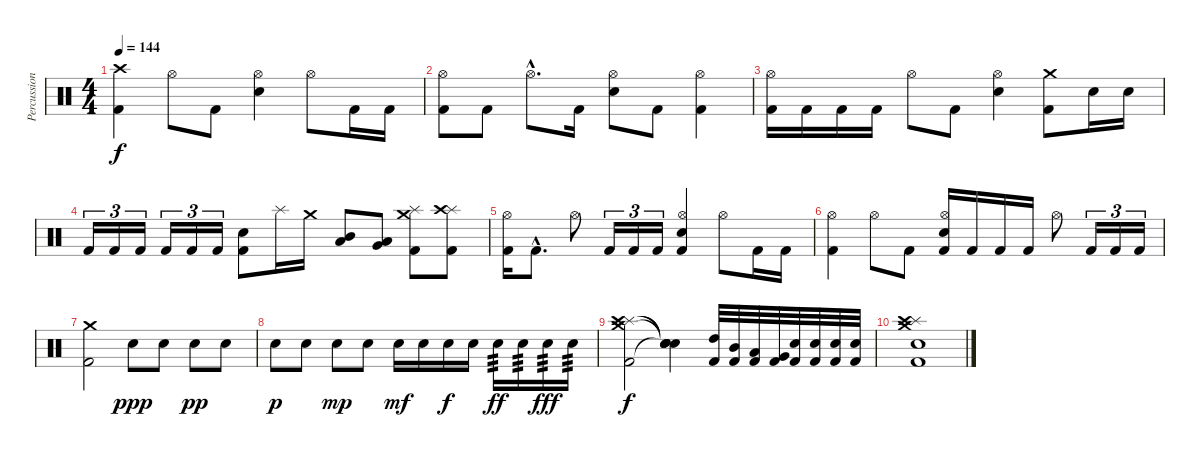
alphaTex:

\track ("Percussion" "Percussion") {instrument percussion}
\staff {score}
\articulation defaults
\ts (4 4)
\tempo 144
\clef neutral
\ks c
("Crash high (hit)" "Kick (hit) 2").4{dy f} "Hi-Hat (open)".8 "Kick (hit) 2".8 ("Hi-Hat (open)" "Electric Snare (hit)").4 "Hi-Hat (open)".8 "Kick (hit) 2".16 "Kick (hit) 2".16 |
("Hi-Hat (open)" "Kick (hit) 2").8 "Kick (hit) 2".8 "Hi-Hat (open)"{hac}.8{d} "Kick (hit) 2".16 ("Hi-Hat (open)" "Electric Snare (hit)").8 "Kick (hit) 2".8 ("Hi-Hat (open)" "Kick (hit) 2").4 |
("Hi-Hat (open)" "Kick (hit) 2").16 "Kick (hit) 2".16 "Kick (hit) 2".16 "Kick (hit) 2".16 "Hi-Hat (open)".8 "Kick (hit) 2".8 ("Hi-Hat (open)" "Electric Snare (hit)").4 ("Crash medium (hit)" "Kick (hit) 2").8 "Electric Snare (hit)".16 "Electric Snare (hit)".16 |
"Kick (hit) 2".16{tu (3 2)} "Kick (hit) 2".16{tu (3 2)} "Kick (hit) 2".16{tu (3 2)} "Kick (hit) 2".16{tu (3 2)} "Kick (hit) 2".16{tu (3 2)} "Kick (hit) 2".16{tu (3 2)} ("Electric Snare (hit)" "Kick (hit) 2").8 "Splash (hit)".16 "Crash medium (hit)".16 ("Mid Tom (hit)" "Low Tom (hit)").8 ("Low Tom (hit)" "Very Low Tom (hit)").8 ("Splash (hit)" "Crash medium (hit)" "Kick (hit) 2").8 ("Splash (hit)" "Crash high (hit)" "Kick (hit) 2").8 |
("Hi-Hat (open)" "Kick (hit) 2").16 "Kick (hit) 2"{hac}.8{d} "Hi-Hat (open)".8 "Kick (hit) 2".16{tu (3 2)} "Kick (hit) 2".16{tu (3 2)} "Kick (hit) 2".16{tu (3 2)} ("Hi-Hat (open)" "Electric Snare (hit)" "Kick (hit) 2").4 "Hi-Hat (open)".8 "Kick (hit) 2".16 "Kick (hit) 2".16 |
("Hi-Hat (open)" "Kick (hit) 2").4 "Hi-Hat (open)".8 "Kick (hit) 2".8 ("Hi-Hat (open)" "Electric Snare (hit)" "Kick (hit) 2").16 "Kick (hit) 2".16 "Kick (hit) 2".16 "Kick (hit) 2".16 "Hi-Hat (open)".8 "Kick (hit) 2".16{tu (3 2)} "Kick (hit) 2".16{tu (3 2)} "Kick (hit) 2".16{tu (3 2)} |
("Crash medium (hit)" "Kick (hit) 2").2 "Electric Snare (hit)".8{dy ppp} "Electric Snare (hit)".8 "Electric Snare (hit)".8{dy pp} "Electric Snare (hit)".8 |
"Electric Snare (hit)".8{dy p} "Electric Snare (hit)".8 "Electric Snare (hit)".8{dy mp} "Electric Snare (hit)".8 "Electric Snare (hit)".16{dy mf} "Electric Snare (hit)".16 "Electric Snare (hit)".16{dy f} "Electric Snare (hit)".16 "Electric Snare (hit)".16{tp 3 dy ff} "Electric Snare (hit)".16{tp 3} "Electric Snare (hit)".16{tp 3 dy fff} "Electric Snare (hit)".16{tp 3} |
("Crash medium (hit)" "Splash (hit)" "Crash high (hit)" "Kick (hit) 2").2{dy f} ("Snare (hit)"{t} "Snare (hit)"{t} "Snare (hit)"{t} "Snare (hit)"{t}).4 ("High Tom (hit)" "Kick (hit) 2").32 ("Mid Tom (hit)" "Kick (hit) 2").32 ("Low Tom (hit)" "Kick (hit) 2").32 ("Very Low Tom (hit)" "Kick (hit) 2").32 ("Electric Snare (hit)" "Kick (hit) 2").32 ("Electric Snare (hit)" "Kick (hit) 2").32 ("Electric Snare (hit)" "Kick (hit) 2").32 ("Electric Snare (hit)" "Kick (hit) 2").32 |
("Splash (hit)" "Crash medium (hit)" "Crash high (hit)" "Electric Snare (hit)" "Kick (hit) 2").1
